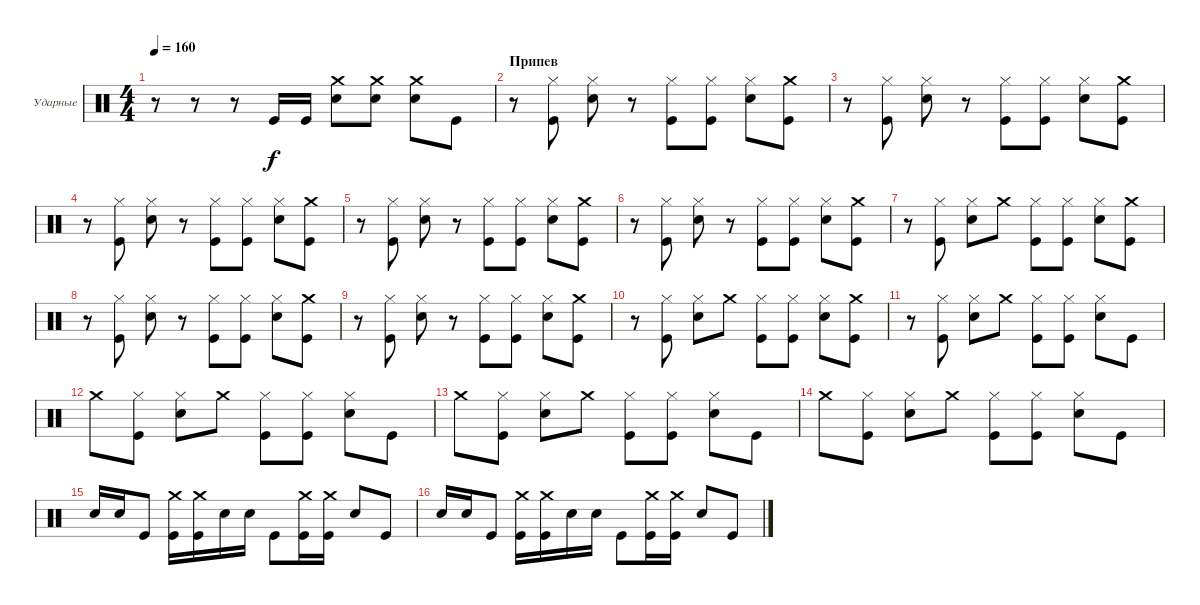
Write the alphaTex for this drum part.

\bracketExtendMode groupsimilarinstruments
\firstSystemTrackNameOrientation horizontal
\otherSystemsTrackNameOrientation horizontal
\track ("Александр Львов" "Ударные") {instrument percussion}
\staff {score}
\articulation defaults
\ts (4 4)
\tempo 160
\clef neutral
\ks c
r.8{dy f} r.8 r.8 "Kick (hit)".16 "Kick (hit)".16 ("Snare (hit) 2" "Crash medium (hit)").8 ("Snare (hit) 2" "Crash medium (hit)").8 ("Snare (hit) 2" "Crash medium (hit)").8 "Kick (hit)".8 |
\section ("" "Припев")
r.8 ("Kick (hit)" "Hi-Hat (closed)").8 ("Snare (hit) 2" "Hi-Hat (closed)").8 r.8 ("Kick (hit)" "Hi-Hat (closed)").8 ("Kick (hit)" "Hi-Hat (closed)").8 ("Snare (hit) 2" "Hi-Hat (closed)").8 ("Kick (hit)" "Crash medium (hit)").8 |
r.8 ("Kick (hit)" "Hi-Hat (closed)").8 ("Snare (hit) 2" "Hi-Hat (closed)").8 r.8 ("Kick (hit)" "Hi-Hat (closed)").8 ("Kick (hit)" "Hi-Hat (closed)").8 ("Snare (hit) 2" "Hi-Hat (closed)").8 ("Kick (hit)" "Crash medium (hit)").8 |
r.8 ("Kick (hit)" "Hi-Hat (closed)").8 ("Snare (hit) 2" "Hi-Hat (closed)").8 r.8 ("Kick (hit)" "Hi-Hat (closed)").8 ("Kick (hit)" "Hi-Hat (closed)").8 ("Snare (hit) 2" "Hi-Hat (closed)").8 ("Kick (hit)" "Crash medium (hit)").8 |
r.8 ("Kick (hit)" "Hi-Hat (closed)").8 ("Snare (hit) 2" "Hi-Hat (closed)").8 r.8 ("Kick (hit)" "Hi-Hat (closed)").8 ("Kick (hit)" "Hi-Hat (closed)").8 ("Snare (hit) 2" "Hi-Hat (closed)").8 ("Kick (hit)" "Crash medium (hit)").8 |
r.8 ("Kick (hit)" "Hi-Hat (closed)").8 ("Snare (hit) 2" "Hi-Hat (closed)").8 r.8 ("Kick (hit)" "Hi-Hat (closed)").8 ("Kick (hit)" "Hi-Hat (closed)").8 ("Snare (hit) 2" "Hi-Hat (closed)").8 ("Kick (hit)" "Crash medium (hit)").8 |
r.8 ("Kick (hit)" "Hi-Hat (closed)").8 ("Snare (hit) 2" "Hi-Hat (closed)").8 "Crash medium (hit)".8 ("Kick (hit)" "Hi-Hat (closed)").8 ("Kick (hit)" "Hi-Hat (closed)").8 ("Snare (hit) 2" "Hi-Hat (closed)").8 ("Kick (hit)" "Crash medium (hit)").8 |
r.8 ("Kick (hit)" "Hi-Hat (closed)").8 ("Snare (hit) 2" "Hi-Hat (closed)").8 r.8 ("Kick (hit)" "Hi-Hat (closed)").8 ("Kick (hit)" "Hi-Hat (closed)").8 ("Snare (hit) 2" "Hi-Hat (closed)").8 ("Kick (hit)" "Crash medium (hit)").8 |
r.8 ("Kick (hit)" "Hi-Hat (closed)").8 ("Snare (hit) 2" "Hi-Hat (closed)").8 r.8 ("Kick (hit)" "Hi-Hat (closed)").8 ("Kick (hit)" "Hi-Hat (closed)").8 ("Snare (hit) 2" "Hi-Hat (closed)").8 ("Kick (hit)" "Crash medium (hit)").8 |
r.8 ("Kick (hit)" "Hi-Hat (closed)").8 ("Snare (hit) 2" "Hi-Hat (closed)").8 "Crash medium (hit)".8 ("Kick (hit)" "Hi-Hat (closed)").8 ("Kick (hit)" "Hi-Hat (closed)").8 ("Snare (hit) 2" "Hi-Hat (closed)").8 ("Kick (hit)" "Crash medium (hit)").8 |
r.8 ("Kick (hit)" "Hi-Hat (closed)").8 ("Snare (hit) 2" "Hi-Hat (closed)").8 "Crash medium (hit)".8 ("Kick (hit)" "Hi-Hat (closed)").8 ("Kick (hit)" "Hi-Hat (closed)").8 ("Snare (hit) 2" "Hi-Hat (closed)").8 "Kick (hit)".8 |
"Crash medium (hit)".8 ("Kick (hit)" "Hi-Hat (closed)").8 ("Snare (hit) 2" "Hi-Hat (closed)").8 "Crash medium (hit)".8 ("Kick (hit)" "Hi-Hat (closed)").8 ("Kick (hit)" "Hi-Hat (closed)").8 ("Snare (hit) 2" "Hi-Hat (closed)").8 "Kick (hit)".8 |
"Crash medium (hit)".8 ("Kick (hit)" "Hi-Hat (closed)").8 ("Snare (hit) 2" "Hi-Hat (closed)").8 "Crash medium (hit)".8 ("Kick (hit)" "Hi-Hat (closed)").8 ("Kick (hit)" "Hi-Hat (closed)").8 ("Snare (hit) 2" "Hi-Hat (closed)").8 "Kick (hit)".8 |
"Crash medium (hit)".8 ("Kick (hit)" "Hi-Hat (closed)").8 ("Snare (hit) 2" "Hi-Hat (closed)").8 "Crash medium (hit)".8 ("Kick (hit)" "Hi-Hat (closed)").8 ("Kick (hit)" "Hi-Hat (closed)").8 ("Snare (hit) 2" "Hi-Hat (closed)").8 "Kick (hit)".8 |
"Snare (hit) 2".16 "Snare (hit) 2".16 "Kick (hit)".8 ("Kick (hit)" "Crash medium (hit)").16 ("Kick (hit)" "Crash medium (hit)").16 "Snare (hit) 2".16 "Snare (hit) 2".16 "Kick (hit)".8 ("Kick (hit)" "Crash medium (hit)").16 ("Kick (hit)" "Crash medium (hit)").16 "Snare (hit) 2".8 "Kick (hit)".8 |
"Snare (hit) 2".16 "Snare (hit) 2".16 "Kick (hit)".8 ("Kick (hit)" "Crash medium (hit)").16 ("Kick (hit)" "Crash medium (hit)").16 "Snare (hit) 2".16 "Snare (hit) 2".16 "Kick (hit)".8 ("Kick (hit)" "Crash medium (hit)").16 ("Kick (hit)" "Crash medium (hit)").16 "Snare (hit) 2".8 "Kick (hit)".8
